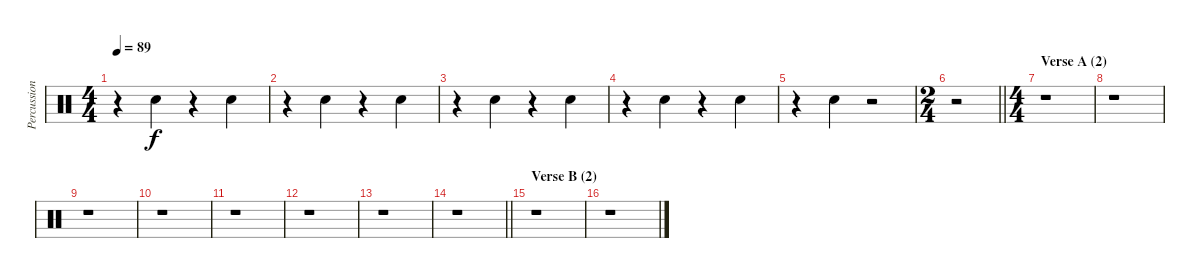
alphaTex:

\track ("Percussion" "Percussion") {instrument percussion}
\staff {score}
\articulation defaults
\ts (4 4)
\tempo 89
\clef neutral
\ks c
r.4{dy f} "Hand Clap (hit)".4 r.4 "Hand Clap (hit)".4 |
r.4 "Hand Clap (hit)".4 r.4 "Hand Clap (hit)".4 |
r.4 "Hand Clap (hit)".4 r.4 "Hand Clap (hit)".4 |
r.4 "Hand Clap (hit)".4 r.4 "Hand Clap (hit)".4 |
r.4 "Hand Clap (hit)".4 r.2 |
\ts (2 4)
\barLineRight lightlight
r.2 |
\ts (4 4)
\section ("" "Verse A (2)")
r.1 |
r.1 |
r.1 |
r.1 |
r.1 |
r.1 |
r.1 |
\barLineRight lightlight
r.1 |
\section ("" "Verse B (2)")
r.1 |
r.1
